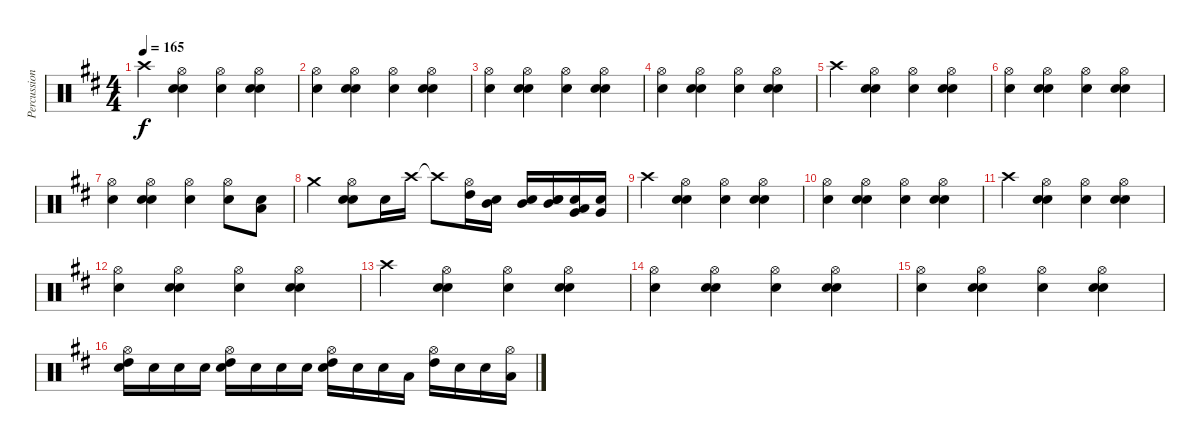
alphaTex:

\track ("Percussion" "Percussion") {instrument percussion}
\staff {score}
\articulation defaults
\ts (4 4)
\tempo 165
\clef neutral
\ks d "Crash high (hit)".4{dy f}
("Hi-Hat (open)" "Snare (hit) 2" "Electric Snare (hit)").4 ("Hi-Hat (open)" "Snare (hit) 2").4 ("Hi-Hat (open)" "Snare (hit) 2" "Electric Snare (hit)").4 |
("Hi-Hat (open)" "Snare (hit) 2").4 ("Hi-Hat (open)" "Snare (hit) 2" "Electric Snare (hit)").4 ("Hi-Hat (open)" "Snare (hit) 2").4 ("Hi-Hat (open)" "Snare (hit) 2" "Electric Snare (hit)").4 |
("Hi-Hat (open)" "Snare (hit) 2").4 ("Hi-Hat (open)" "Snare (hit) 2" "Electric Snare (hit)").4 ("Hi-Hat (open)" "Snare (hit) 2").4 ("Hi-Hat (open)" "Snare (hit) 2" "Electric Snare (hit)").4 |
("Hi-Hat (open)" "Snare (hit) 2").4 ("Hi-Hat (open)" "Snare (hit) 2" "Electric Snare (hit)").4 ("Hi-Hat (open)" "Snare (hit) 2").4 ("Hi-Hat (open)" "Snare (hit) 2" "Electric Snare (hit)").4 |
"Crash high (hit)".4 ("Hi-Hat (open)" "Snare (hit) 2" "Electric Snare (hit)").4 ("Hi-Hat (open)" "Snare (hit) 2").4 ("Hi-Hat (open)" "Snare (hit) 2" "Electric Snare (hit)").4 |
("Hi-Hat (open)" "Snare (hit) 2").4 ("Hi-Hat (open)" "Snare (hit) 2" "Electric Snare (hit)").4 ("Hi-Hat (open)" "Snare (hit) 2").4 ("Hi-Hat (open)" "Snare (hit) 2" "Electric Snare (hit)").4 |
("Hi-Hat (open)" "Snare (hit) 2").4 ("Hi-Hat (open)" "Snare (hit) 2" "Electric Snare (hit)").4 ("Hi-Hat (open)" "Snare (hit) 2").4 ("Hi-Hat (open)" "Snare (hit) 2").8 ("Snare (hit) 2" "Low Floor Tom (hit)").8 |
"Crash medium (hit)".4 ("Hi-Hat (open)" "Snare (hit) 2" "Electric Snare (hit)").8 "Snare (hit) 2".16 "Crash high (hit)".16 "Crash high (hit)"{t}.8 ("Hi-Hat (open)" "High Tom (hit)").16 ("Snare (hit) 2" "Mid Tom (hit)").16 ("Snare (hit) 2" "Mid Tom (hit)").16 ("Snare (hit) 2" "Mid Tom (hit)" "Snare (hit) 2").16 ("Low Tom (hit)" "Very Low Tom (hit)" "Snare (hit) 2").16 ("Very Low Tom (hit)" "Snare (hit) 2").16 |
"Crash high (hit)".4 ("Hi-Hat (open)" "Snare (hit) 2" "Electric Snare (hit)").4 ("Hi-Hat (open)" "Snare (hit) 2").4 ("Hi-Hat (open)" "Snare (hit) 2" "Electric Snare (hit)").4 |
("Hi-Hat (open)" "Snare (hit) 2").4 ("Hi-Hat (open)" "Snare (hit) 2" "Electric Snare (hit)").4 ("Hi-Hat (open)" "Snare (hit) 2").4 ("Hi-Hat (open)" "Snare (hit) 2" "Electric Snare (hit)").4 |
"Crash high (hit)".4 ("Hi-Hat (open)" "Snare (hit) 2" "Electric Snare (hit)").4 ("Hi-Hat (open)" "Snare (hit) 2").4 ("Hi-Hat (open)" "Snare (hit) 2" "Electric Snare (hit)").4 |
("Hi-Hat (open)" "Snare (hit) 2").4 ("Hi-Hat (open)" "Snare (hit) 2" "Electric Snare (hit)").4 ("Hi-Hat (open)" "Snare (hit) 2").4 ("Hi-Hat (open)" "Snare (hit) 2" "Electric Snare (hit)").4 |
"Crash high (hit)".4 ("Hi-Hat (open)" "Snare (hit) 2" "Electric Snare (hit)").4 ("Hi-Hat (open)" "Snare (hit) 2").4 ("Hi-Hat (open)" "Snare (hit) 2" "Electric Snare (hit)").4 |
("Hi-Hat (open)" "Snare (hit) 2").4 ("Hi-Hat (open)" "Snare (hit) 2" "Electric Snare (hit)").4 ("Hi-Hat (open)" "Snare (hit) 2").4 ("Hi-Hat (open)" "Snare (hit) 2" "Electric Snare (hit)").4 |
("Hi-Hat (open)" "Snare (hit) 2").4 ("Hi-Hat (open)" "Snare (hit) 2" "Electric Snare (hit)").4 ("Hi-Hat (open)" "Snare (hit) 2").4 ("Hi-Hat (open)" "Snare (hit) 2" "Electric Snare (hit)").4 |
("Hi-Hat (open)" "Snare (hit) 2" "High Tom (hit)").16 "Snare (hit) 2".16 "Snare (hit) 2".16 "Snare (hit) 2".16 ("Hi-Hat (open)" "Snare (hit) 2" "High Tom (hit)").16 "Snare (hit) 2".16 "Snare (hit) 2".16 "Snare (hit) 2".16 ("Hi-Hat (open)" "Snare (hit) 2" "High Tom (hit)").16 "Snare (hit) 2".16 "Snare (hit) 2".16 "Low Tom (hit)".16 ("High Tom (hit)" "Hi-Hat (open)").16 "Snare (hit) 2".16 "Snare (hit) 2".16 ("Low Tom (hit)" "Hi-Hat (open)").16
